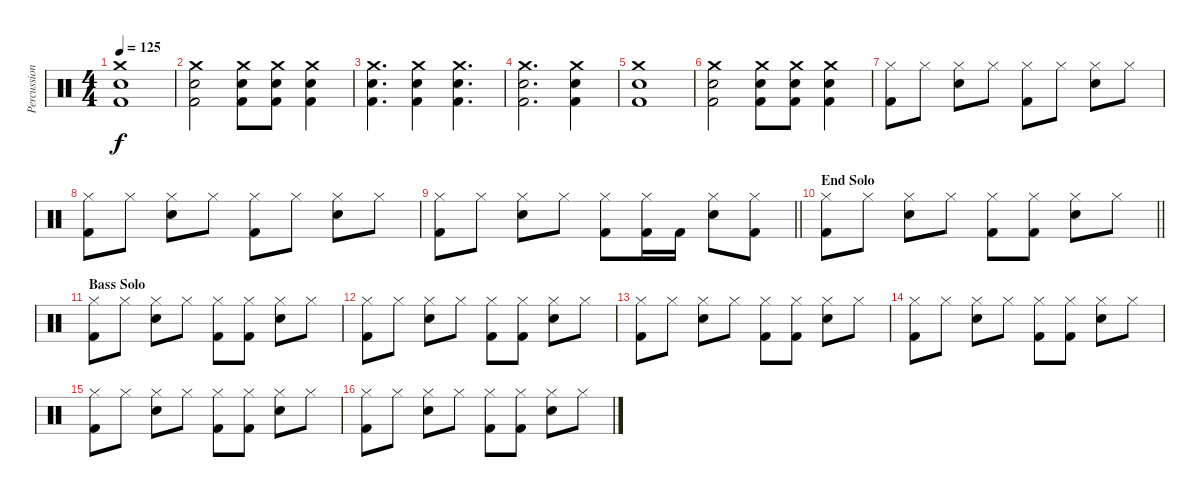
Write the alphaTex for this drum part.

\track ("Percussion" "Percussion") {instrument percussion}
\staff {score}
\articulation defaults
\ts (4 4)
\tempo 125
\clef neutral
\ks c
("Crash medium (hit)" "Snare (hit) 2" "Kick (hit) 2").1{dy f} |
("Crash medium (hit)" "Snare (hit) 2" "Kick (hit) 2").2 ("Crash medium (hit)" "Snare (hit) 2" "Kick (hit) 2").8 ("Crash medium (hit)" "Snare (hit) 2" "Kick (hit) 2").8 ("Crash medium (hit)" "Snare (hit) 2" "Kick (hit) 2").4 |
("Crash medium (hit)" "Snare (hit) 2" "Kick (hit) 2").4{d} ("Crash medium (hit)" "Snare (hit) 2" "Kick (hit) 2").4 ("Crash medium (hit)" "Snare (hit) 2" "Kick (hit) 2").4{d} |
("Crash medium (hit)" "Snare (hit) 2" "Kick (hit) 2").2{d} ("Crash medium (hit)" "Snare (hit) 2" "Kick (hit) 2").4 |
("Crash medium (hit)" "Snare (hit) 2" "Kick (hit) 2").1 |
("Crash medium (hit)" "Snare (hit) 2" "Kick (hit) 2").2 ("Crash medium (hit)" "Snare (hit) 2" "Kick (hit) 2").8 ("Crash medium (hit)" "Snare (hit) 2" "Kick (hit) 2").8 ("Crash medium (hit)" "Snare (hit) 2" "Kick (hit) 2").4 |
("Hi-Hat (closed)" "Kick (hit) 2").8 "Hi-Hat (closed)".8 ("Hi-Hat (closed)" "Snare (hit) 2").8 "Hi-Hat (closed)".8 ("Hi-Hat (closed)" "Kick (hit) 2").8 "Hi-Hat (closed)".8 ("Hi-Hat (closed)" "Snare (hit) 2").8 "Hi-Hat (closed)".8 |
("Hi-Hat (closed)" "Kick (hit) 2").8 "Hi-Hat (closed)".8 ("Hi-Hat (closed)" "Snare (hit) 2").8 "Hi-Hat (closed)".8 ("Hi-Hat (closed)" "Kick (hit) 2").8 "Hi-Hat (closed)".8 ("Hi-Hat (closed)" "Snare (hit) 2").8 "Hi-Hat (closed)".8 |
\barLineRight lightlight
("Hi-Hat (closed)" "Kick (hit) 2").8 "Hi-Hat (closed)".8 ("Hi-Hat (closed)" "Snare (hit) 2").8 "Hi-Hat (closed)".8 ("Hi-Hat (closed)" "Kick (hit) 2").8 ("Hi-Hat (closed)" "Kick (hit) 2").16 "Kick (hit) 2".16 ("Hi-Hat (closed)" "Snare (hit) 2").8 ("Hi-Hat (closed)" "Kick (hit) 2").8 |
\section ("" "End Solo")
\barLineRight lightlight
("Hi-Hat (closed)" "Kick (hit) 2").8 "Hi-Hat (closed)".8 ("Hi-Hat (closed)" "Snare (hit) 2").8 "Hi-Hat (closed)".8 ("Hi-Hat (closed)" "Kick (hit) 2").8 ("Hi-Hat (closed)" "Kick (hit) 2").8 ("Hi-Hat (closed)" "Snare (hit) 2").8 "Hi-Hat (closed)".8 |
\section ("" "Bass Solo")
("Hi-Hat (closed)" "Kick (hit) 2").8 "Hi-Hat (closed)".8 ("Hi-Hat (closed)" "Snare (hit) 2").8 "Hi-Hat (closed)".8 ("Hi-Hat (closed)" "Kick (hit) 2").8 ("Hi-Hat (closed)" "Kick (hit) 2").8 ("Hi-Hat (closed)" "Snare (hit) 2").8 "Hi-Hat (closed)".8 |
("Hi-Hat (closed)" "Kick (hit) 2").8 "Hi-Hat (closed)".8 ("Hi-Hat (closed)" "Snare (hit) 2").8 "Hi-Hat (closed)".8 ("Hi-Hat (closed)" "Kick (hit) 2").8 ("Hi-Hat (closed)" "Kick (hit) 2").8 ("Hi-Hat (closed)" "Snare (hit) 2").8 "Hi-Hat (closed)".8 |
("Hi-Hat (closed)" "Kick (hit) 2").8 "Hi-Hat (closed)".8 ("Hi-Hat (closed)" "Snare (hit) 2").8 "Hi-Hat (closed)".8 ("Hi-Hat (closed)" "Kick (hit) 2").8 ("Hi-Hat (closed)" "Kick (hit) 2").8 ("Hi-Hat (closed)" "Snare (hit) 2").8 "Hi-Hat (closed)".8 |
("Hi-Hat (closed)" "Kick (hit) 2").8 "Hi-Hat (closed)".8 ("Hi-Hat (closed)" "Snare (hit) 2").8 "Hi-Hat (closed)".8 ("Hi-Hat (closed)" "Kick (hit) 2").8 ("Hi-Hat (closed)" "Kick (hit) 2").8 ("Hi-Hat (closed)" "Snare (hit) 2").8 "Hi-Hat (closed)".8 |
("Hi-Hat (closed)" "Kick (hit) 2").8 "Hi-Hat (closed)".8 ("Hi-Hat (closed)" "Snare (hit) 2").8 "Hi-Hat (closed)".8 ("Hi-Hat (closed)" "Kick (hit) 2").8 ("Hi-Hat (closed)" "Kick (hit) 2").8 ("Hi-Hat (closed)" "Snare (hit) 2").8 "Hi-Hat (closed)".8 |
("Hi-Hat (closed)" "Kick (hit) 2").8 "Hi-Hat (closed)".8 ("Hi-Hat (closed)" "Snare (hit) 2").8 "Hi-Hat (closed)".8 ("Hi-Hat (closed)" "Kick (hit) 2").8 ("Hi-Hat (closed)" "Kick (hit) 2").8 ("Hi-Hat (closed)" "Snare (hit) 2").8 "Hi-Hat (closed)".8
